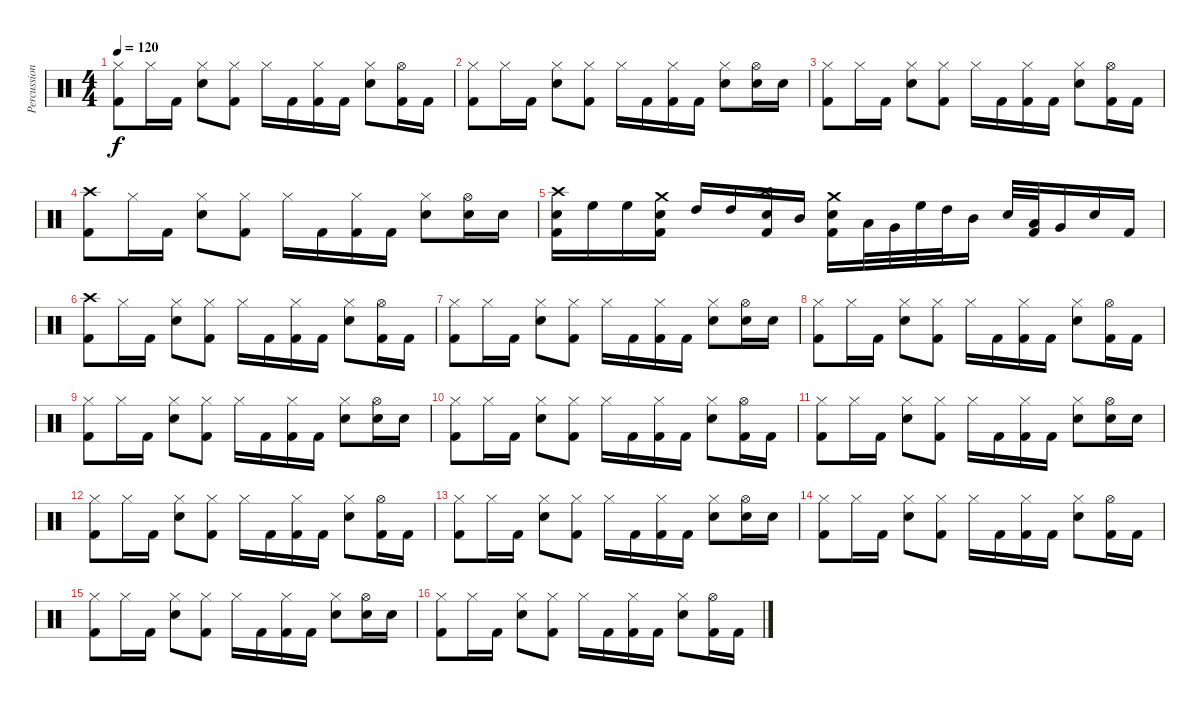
\track ("Percussion" "Percussion") {instrument percussion}
\staff {score}
\articulation defaults
\ts (4 4)
\tempo 120
\clef neutral
\ks c
("Hi-Hat (closed)" "Kick (hit) 2").8{dy f} "Hi-Hat (closed)".16 "Kick (hit) 2".16 ("Hi-Hat (closed)" "Snare (hit) 2").8 ("Hi-Hat (closed)" "Kick (hit) 2").8 "Hi-Hat (closed)".16 "Kick (hit) 2".16 ("Hi-Hat (closed)" "Kick (hit) 2").16 "Kick (hit) 2".16 ("Hi-Hat (closed)" "Snare (hit) 2").8 ("Hi-Hat (open)" "Kick (hit) 2").16 "Kick (hit) 2".16 |
("Hi-Hat (closed)" "Kick (hit) 2").8 "Hi-Hat (closed)".16 "Kick (hit) 2".16 ("Hi-Hat (closed)" "Snare (hit) 2").8 ("Hi-Hat (closed)" "Kick (hit) 2").8 "Hi-Hat (closed)".16 "Kick (hit) 2".16 ("Hi-Hat (closed)" "Kick (hit) 2").16 "Kick (hit) 2".16 ("Hi-Hat (closed)" "Snare (hit) 2").8 ("Hi-Hat (open)" "Snare (hit) 2").16 "Snare (hit) 2".16 |
("Hi-Hat (closed)" "Kick (hit) 2").8 "Hi-Hat (closed)".16 "Kick (hit) 2".16 ("Hi-Hat (closed)" "Snare (hit) 2").8 ("Hi-Hat (closed)" "Kick (hit) 2").8 "Hi-Hat (closed)".16 "Kick (hit) 2".16 ("Hi-Hat (closed)" "Kick (hit) 2").16 "Kick (hit) 2".16 ("Hi-Hat (closed)" "Snare (hit) 2").8 ("Hi-Hat (open)" "Kick (hit) 2").16 "Kick (hit) 2".16 |
("Crash high (hit)" "Kick (hit) 2").8 "Hi-Hat (closed)".16 "Kick (hit) 2".16 ("Hi-Hat (closed)" "Snare (hit) 2").8 ("Hi-Hat (closed)" "Kick (hit) 2").8 "Hi-Hat (closed)".16 "Kick (hit) 2".16 ("Hi-Hat (closed)" "Kick (hit) 2").16 "Kick (hit) 2".16 ("Hi-Hat (closed)" "Snare (hit) 2").8 ("Hi-Hat (open)" "Snare (hit) 2").16 "Snare (hit) 2".16 |
("Crash high (hit)" "Electric Snare (hit)" "Kick (hit) 2").16 "High Floor Tom (hit)".16 "High Floor Tom (hit)".16 ("Crash medium (hit)" "Electric Snare (hit)" "Kick (hit) 2").16 "High Tom (hit)".16 "High Tom (hit)".16 ("Crash high (hit)" "Electric Snare (hit)" "Kick (hit) 2").16 "Mid Tom (hit)".16 ("Crash medium (hit)" "Electric Snare (hit)" "Kick (hit) 2").16 "Low Tom (hit)".32 "Very Low Tom (hit)".32 "High Floor Tom (hit)".32 "High Tom (hit)".32 "Mid Tom (hit)".16 "Electric Snare (hit)".32 ("Low Tom (hit)" "Kick (hit) 2").32 "Very Low Tom (hit)".16 "Electric Snare (hit)".16 "Kick (hit) 2".16 |
("Crash high (hit)" "Kick (hit) 2").8 "Hi-Hat (closed)".16 "Kick (hit) 2".16 ("Hi-Hat (closed)" "Snare (hit) 2").8 ("Hi-Hat (closed)" "Kick (hit) 2").8 "Hi-Hat (closed)".16 "Kick (hit) 2".16 ("Hi-Hat (closed)" "Kick (hit) 2").16 "Kick (hit) 2".16 ("Hi-Hat (closed)" "Snare (hit) 2").8 ("Hi-Hat (open)" "Kick (hit) 2").16 "Kick (hit) 2".16 |
("Hi-Hat (closed)" "Kick (hit) 2").8 "Hi-Hat (closed)".16 "Kick (hit) 2".16 ("Hi-Hat (closed)" "Snare (hit) 2").8 ("Hi-Hat (closed)" "Kick (hit) 2").8 "Hi-Hat (closed)".16 "Kick (hit) 2".16 ("Hi-Hat (closed)" "Kick (hit) 2").16 "Kick (hit) 2".16 ("Hi-Hat (closed)" "Snare (hit) 2").8 ("Hi-Hat (open)" "Snare (hit) 2").16 "Snare (hit) 2".16 |
("Hi-Hat (closed)" "Kick (hit) 2").8 "Hi-Hat (closed)".16 "Kick (hit) 2".16 ("Hi-Hat (closed)" "Snare (hit) 2").8 ("Hi-Hat (closed)" "Kick (hit) 2").8 "Hi-Hat (closed)".16 "Kick (hit) 2".16 ("Hi-Hat (closed)" "Kick (hit) 2").16 "Kick (hit) 2".16 ("Hi-Hat (closed)" "Snare (hit) 2").8 ("Hi-Hat (open)" "Kick (hit) 2").16 "Kick (hit) 2".16 |
("Hi-Hat (closed)" "Kick (hit) 2").8 "Hi-Hat (closed)".16 "Kick (hit) 2".16 ("Hi-Hat (closed)" "Snare (hit) 2").8 ("Hi-Hat (closed)" "Kick (hit) 2").8 "Hi-Hat (closed)".16 "Kick (hit) 2".16 ("Hi-Hat (closed)" "Kick (hit) 2").16 "Kick (hit) 2".16 ("Hi-Hat (closed)" "Snare (hit) 2").8 ("Hi-Hat (open)" "Snare (hit) 2").16 "Snare (hit) 2".16 |
("Hi-Hat (closed)" "Kick (hit) 2").8 "Hi-Hat (closed)".16 "Kick (hit) 2".16 ("Hi-Hat (closed)" "Snare (hit) 2").8 ("Hi-Hat (closed)" "Kick (hit) 2").8 "Hi-Hat (closed)".16 "Kick (hit) 2".16 ("Hi-Hat (closed)" "Kick (hit) 2").16 "Kick (hit) 2".16 ("Hi-Hat (closed)" "Snare (hit) 2").8 ("Hi-Hat (open)" "Kick (hit) 2").16 "Kick (hit) 2".16 |
("Hi-Hat (closed)" "Kick (hit) 2").8 "Hi-Hat (closed)".16 "Kick (hit) 2".16 ("Hi-Hat (closed)" "Snare (hit) 2").8 ("Hi-Hat (closed)" "Kick (hit) 2").8 "Hi-Hat (closed)".16 "Kick (hit) 2".16 ("Hi-Hat (closed)" "Kick (hit) 2").16 "Kick (hit) 2".16 ("Hi-Hat (closed)" "Snare (hit) 2").8 ("Hi-Hat (open)" "Snare (hit) 2").16 "Snare (hit) 2".16 |
("Hi-Hat (closed)" "Kick (hit) 2").8 "Hi-Hat (closed)".16 "Kick (hit) 2".16 ("Hi-Hat (closed)" "Snare (hit) 2").8 ("Hi-Hat (closed)" "Kick (hit) 2").8 "Hi-Hat (closed)".16 "Kick (hit) 2".16 ("Hi-Hat (closed)" "Kick (hit) 2").16 "Kick (hit) 2".16 ("Hi-Hat (closed)" "Snare (hit) 2").8 ("Hi-Hat (open)" "Kick (hit) 2").16 "Kick (hit) 2".16 |
("Hi-Hat (closed)" "Kick (hit) 2").8 "Hi-Hat (closed)".16 "Kick (hit) 2".16 ("Hi-Hat (closed)" "Snare (hit) 2").8 ("Hi-Hat (closed)" "Kick (hit) 2").8 "Hi-Hat (closed)".16 "Kick (hit) 2".16 ("Hi-Hat (closed)" "Kick (hit) 2").16 "Kick (hit) 2".16 ("Hi-Hat (closed)" "Snare (hit) 2").8 ("Hi-Hat (open)" "Snare (hit) 2").16 "Snare (hit) 2".16 |
("Hi-Hat (closed)" "Kick (hit) 2").8 "Hi-Hat (closed)".16 "Kick (hit) 2".16 ("Hi-Hat (closed)" "Snare (hit) 2").8 ("Hi-Hat (closed)" "Kick (hit) 2").8 "Hi-Hat (closed)".16 "Kick (hit) 2".16 ("Hi-Hat (closed)" "Kick (hit) 2").16 "Kick (hit) 2".16 ("Hi-Hat (closed)" "Snare (hit) 2").8 ("Hi-Hat (open)" "Kick (hit) 2").16 "Kick (hit) 2".16 |
("Hi-Hat (closed)" "Kick (hit) 2").8 "Hi-Hat (closed)".16 "Kick (hit) 2".16 ("Hi-Hat (closed)" "Snare (hit) 2").8 ("Hi-Hat (closed)" "Kick (hit) 2").8 "Hi-Hat (closed)".16 "Kick (hit) 2".16 ("Hi-Hat (closed)" "Kick (hit) 2").16 "Kick (hit) 2".16 ("Hi-Hat (closed)" "Snare (hit) 2").8 ("Hi-Hat (open)" "Snare (hit) 2").16 "Snare (hit) 2".16 |
("Hi-Hat (closed)" "Kick (hit) 2").8 "Hi-Hat (closed)".16 "Kick (hit) 2".16 ("Hi-Hat (closed)" "Snare (hit) 2").8 ("Hi-Hat (closed)" "Kick (hit) 2").8 "Hi-Hat (closed)".16 "Kick (hit) 2".16 ("Hi-Hat (closed)" "Kick (hit) 2").16 "Kick (hit) 2".16 ("Hi-Hat (closed)" "Snare (hit) 2").8 ("Hi-Hat (open)" "Kick (hit) 2").16 "Kick (hit) 2".16
